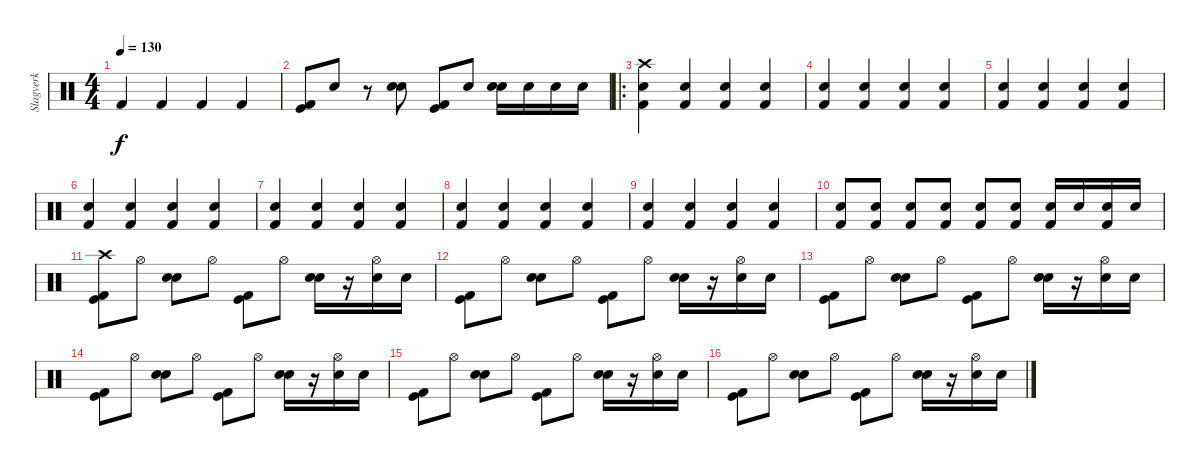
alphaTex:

\track ("Slagverk" "Slagverk") {instrument percussion}
\staff {score}
\articulation defaults
\ts (4 4)
\tempo 130
\clef neutral
\ks c "Kick (hit) 2".4{dy f} "Kick (hit) 2".4 "Kick (hit) 2".4 "Kick (hit) 2".4
|
("Kick (hit)" "Kick (hit) 2").8 "Electric Snare (hit)".8 r.8 ("Electric Snare (hit)" "Snare (hit) 2").8 ("Kick (hit)" "Kick (hit) 2").8 "Electric Snare (hit)".8 ("Electric Snare (hit)" "Snare (hit) 2").16 "Electric Snare (hit)".16 "Electric Snare (hit)".16 "Electric Snare (hit)".16 |
\ro
("Crash high (hit)" "Snare (hit) 2" "Kick (hit) 2").4 ("Snare (hit) 2" "Kick (hit) 2").4 ("Snare (hit) 2" "Kick (hit) 2").4 ("Snare (hit) 2" "Kick (hit) 2").4 |
("Snare (hit) 2" "Kick (hit) 2").4 ("Snare (hit) 2" "Kick (hit) 2").4 ("Snare (hit) 2" "Kick (hit) 2").4 ("Snare (hit) 2" "Kick (hit) 2").4 |
("Snare (hit) 2" "Kick (hit) 2").4 ("Snare (hit) 2" "Kick (hit) 2").4 ("Snare (hit) 2" "Kick (hit) 2").4 ("Snare (hit) 2" "Kick (hit) 2").4 |
("Snare (hit) 2" "Kick (hit) 2").4 ("Snare (hit) 2" "Kick (hit) 2").4 ("Snare (hit) 2" "Kick (hit) 2").4 ("Snare (hit) 2" "Kick (hit) 2").4 |
("Snare (hit) 2" "Kick (hit) 2").4 ("Snare (hit) 2" "Kick (hit) 2").4 ("Snare (hit) 2" "Kick (hit) 2").4 ("Snare (hit) 2" "Kick (hit) 2").4 |
("Snare (hit) 2" "Kick (hit) 2").4 ("Snare (hit) 2" "Kick (hit) 2").4 ("Snare (hit) 2" "Kick (hit) 2").4 ("Snare (hit) 2" "Kick (hit) 2").4 |
("Snare (hit) 2" "Kick (hit) 2").4 ("Snare (hit) 2" "Kick (hit) 2").4 ("Snare (hit) 2" "Kick (hit) 2").4 ("Snare (hit) 2" "Kick (hit) 2").4 |
("Snare (hit) 2" "Kick (hit) 2").8 ("Snare (hit) 2" "Kick (hit) 2").8 ("Snare (hit) 2" "Kick (hit) 2").8 ("Snare (hit) 2" "Kick (hit) 2").8 ("Snare (hit) 2" "Kick (hit) 2").8 ("Snare (hit) 2" "Kick (hit) 2").8 ("Snare (hit) 2" "Kick (hit) 2").16 "Electric Snare (hit)".16 ("Snare (hit) 2" "Kick (hit) 2").16 "Electric Snare (hit)".16 |
("Crash high (hit)" "Kick (hit)" "Kick (hit) 2").8 "Hi-Hat (open)".8 ("Electric Snare (hit)" "Snare (hit) 2").8 "Hi-Hat (open)".8 ("Kick (hit)" "Kick (hit) 2").8 "Hi-Hat (open)".8 ("Electric Snare (hit)" "Snare (hit) 2").16 r.16 ("Hi-Hat (open)" "Snare (hit) 2").16 "Snare (hit) 2".16 |
("Kick (hit)" "Kick (hit) 2").8 "Hi-Hat (open)".8 ("Electric Snare (hit)" "Snare (hit) 2").8 "Hi-Hat (open)".8 ("Kick (hit)" "Kick (hit) 2").8 "Hi-Hat (open)".8 ("Electric Snare (hit)" "Snare (hit) 2").16 r.16 ("Hi-Hat (open)" "Snare (hit) 2").16 "Snare (hit) 2".16 |
("Kick (hit)" "Kick (hit) 2").8 "Hi-Hat (open)".8 ("Electric Snare (hit)" "Snare (hit) 2").8 "Hi-Hat (open)".8 ("Kick (hit)" "Kick (hit) 2").8 "Hi-Hat (open)".8 ("Electric Snare (hit)" "Snare (hit) 2").16 r.16 ("Hi-Hat (open)" "Snare (hit) 2").16 "Snare (hit) 2".16 |
("Kick (hit)" "Kick (hit) 2").8 "Hi-Hat (open)".8 ("Electric Snare (hit)" "Snare (hit) 2").8 "Hi-Hat (open)".8 ("Kick (hit)" "Kick (hit) 2").8 "Hi-Hat (open)".8 ("Electric Snare (hit)" "Snare (hit) 2").16 r.16 ("Hi-Hat (open)" "Snare (hit) 2").16 "Snare (hit) 2".16 |
("Kick (hit)" "Kick (hit) 2").8 "Hi-Hat (open)".8 ("Electric Snare (hit)" "Snare (hit) 2").8 "Hi-Hat (open)".8 ("Kick (hit)" "Kick (hit) 2").8 "Hi-Hat (open)".8 ("Electric Snare (hit)" "Snare (hit) 2").16 r.16 ("Hi-Hat (open)" "Snare (hit) 2").16 "Snare (hit) 2".16 |
("Kick (hit)" "Kick (hit) 2").8 "Hi-Hat (open)".8 ("Electric Snare (hit)" "Snare (hit) 2").8 "Hi-Hat (open)".8 ("Kick (hit)" "Kick (hit) 2").8 "Hi-Hat (open)".8 ("Electric Snare (hit)" "Snare (hit) 2").16 r.16 ("Hi-Hat (open)" "Snare (hit) 2").16 "Snare (hit) 2".16
